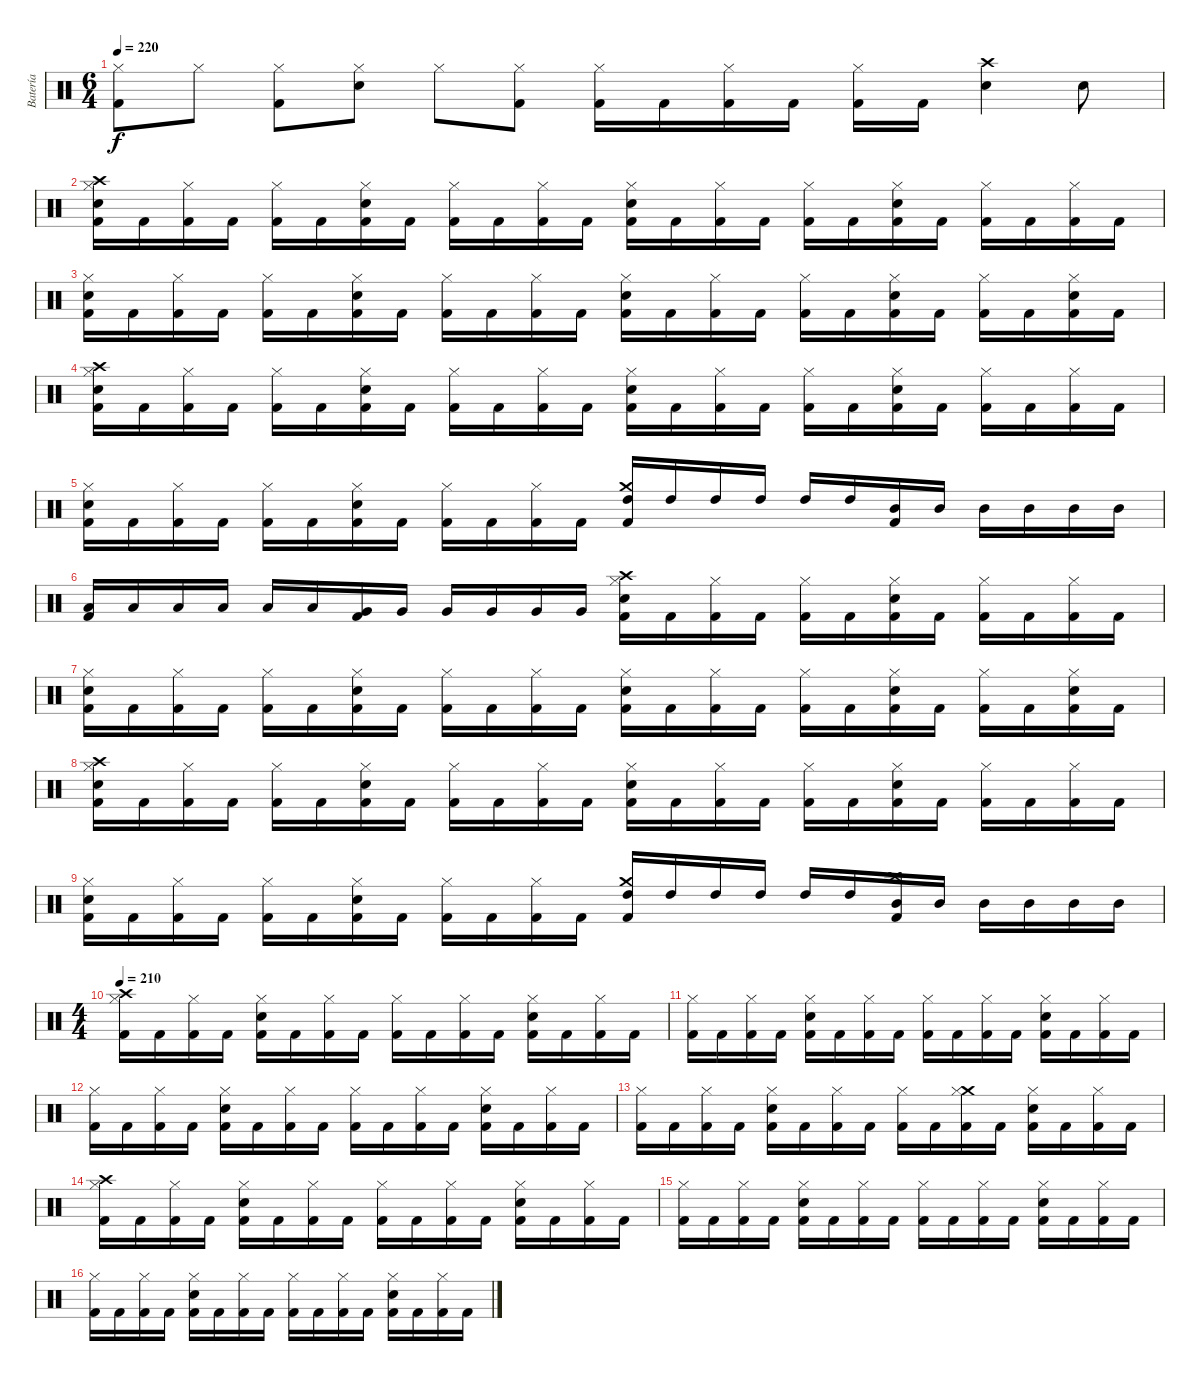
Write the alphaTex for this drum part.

\track ("Batería" "Batería") {instrument percussion}
\staff {score}
\articulation defaults
\ts (6 4)
\tempo 220
\clef neutral
\ks c
("Kick (hit) 2" "Hi-Hat (closed)").8{dy f} "Hi-Hat (closed)".8 ("Kick (hit) 2" "Hi-Hat (closed)").8 ("Electric Snare (hit)" "Hi-Hat (closed)").8 "Hi-Hat (closed)".8 ("Kick (hit) 2" "Hi-Hat (closed)").8 ("Hi-Hat (closed)" "Kick (hit) 2").16 "Kick (hit) 2".16 ("Hi-Hat (closed)" "Kick (hit) 2").16 "Kick (hit) 2".16 ("Hi-Hat (closed)" "Kick (hit) 2").16 "Kick (hit) 2".16 ("Crash high (hit)" "Electric Snare (hit)").4 "Electric Snare (hit)".8 |
("Crash high (hit)" "Electric Snare (hit)" "Hi-Hat (closed)" "Kick (hit) 2").16 "Kick (hit) 2".16 ("Hi-Hat (closed)" "Kick (hit) 2").16 "Kick (hit) 2".16 ("Hi-Hat (closed)" "Kick (hit) 2").16 "Kick (hit) 2".16 ("Electric Snare (hit)" "Hi-Hat (closed)" "Kick (hit) 2").16 "Kick (hit) 2".16 ("Hi-Hat (closed)" "Kick (hit) 2").16 "Kick (hit) 2".16 ("Hi-Hat (closed)" "Kick (hit) 2").16 "Kick (hit) 2".16 ("Electric Snare (hit)" "Hi-Hat (closed)" "Kick (hit) 2").16 "Kick (hit) 2".16 ("Hi-Hat (closed)" "Kick (hit) 2").16 "Kick (hit) 2".16 ("Hi-Hat (closed)" "Kick (hit) 2").16 "Kick (hit) 2".16 ("Electric Snare (hit)" "Hi-Hat (closed)" "Kick (hit) 2").16 "Kick (hit) 2".16 ("Hi-Hat (closed)" "Kick (hit) 2").16 "Kick (hit) 2".16 ("Hi-Hat (closed)" "Kick (hit) 2").16 "Kick (hit) 2".16 |
("Electric Snare (hit)" "Hi-Hat (closed)" "Kick (hit) 2").16 "Kick (hit) 2".16 ("Hi-Hat (closed)" "Kick (hit) 2").16 "Kick (hit) 2".16 ("Hi-Hat (closed)" "Kick (hit) 2").16 "Kick (hit) 2".16 ("Electric Snare (hit)" "Hi-Hat (closed)" "Kick (hit) 2").16 "Kick (hit) 2".16 ("Hi-Hat (closed)" "Kick (hit) 2").16 "Kick (hit) 2".16 ("Hi-Hat (closed)" "Kick (hit) 2").16 "Kick (hit) 2".16 ("Electric Snare (hit)" "Hi-Hat (closed)" "Kick (hit) 2").16 "Kick (hit) 2".16 ("Hi-Hat (closed)" "Kick (hit) 2").16 "Kick (hit) 2".16 ("Hi-Hat (closed)" "Kick (hit) 2").16 "Kick (hit) 2".16 ("Electric Snare (hit)" "Hi-Hat (closed)" "Kick (hit) 2").16 "Kick (hit) 2".16 ("Hi-Hat (closed)" "Kick (hit) 2").16 "Kick (hit) 2".16 ("Electric Snare (hit)" "Hi-Hat (closed)" "Kick (hit) 2").16 "Kick (hit) 2".16 |
("Crash high (hit)" "Electric Snare (hit)" "Hi-Hat (closed)" "Kick (hit) 2").16 "Kick (hit) 2".16 ("Hi-Hat (closed)" "Kick (hit) 2").16 "Kick (hit) 2".16 ("Hi-Hat (closed)" "Kick (hit) 2").16 "Kick (hit) 2".16 ("Electric Snare (hit)" "Hi-Hat (closed)" "Kick (hit) 2").16 "Kick (hit) 2".16 ("Hi-Hat (closed)" "Kick (hit) 2").16 "Kick (hit) 2".16 ("Hi-Hat (closed)" "Kick (hit) 2").16 "Kick (hit) 2".16 ("Electric Snare (hit)" "Hi-Hat (closed)" "Kick (hit) 2").16 "Kick (hit) 2".16 ("Hi-Hat (closed)" "Kick (hit) 2").16 "Kick (hit) 2".16 ("Hi-Hat (closed)" "Kick (hit) 2").16 "Kick (hit) 2".16 ("Electric Snare (hit)" "Hi-Hat (closed)" "Kick (hit) 2").16 "Kick (hit) 2".16 ("Hi-Hat (closed)" "Kick (hit) 2").16 "Kick (hit) 2".16 ("Hi-Hat (closed)" "Kick (hit) 2").16 "Kick (hit) 2".16 |
("Electric Snare (hit)" "Hi-Hat (closed)" "Kick (hit) 2").16 "Kick (hit) 2".16 ("Hi-Hat (closed)" "Kick (hit) 2").16 "Kick (hit) 2".16 ("Hi-Hat (closed)" "Kick (hit) 2").16 "Kick (hit) 2".16 ("Electric Snare (hit)" "Hi-Hat (closed)" "Kick (hit) 2").16 "Kick (hit) 2".16 ("Hi-Hat (closed)" "Kick (hit) 2").16 "Kick (hit) 2".16 ("Hi-Hat (closed)" "Kick (hit) 2").16 "Kick (hit) 2".16 ("Crash medium (hit)" "Kick (hit) 2" "High Tom (hit)").16 "High Tom (hit)".16 "High Tom (hit)".16 "High Tom (hit)".16 "High Tom (hit)".16 "High Tom (hit)".16 ("Kick (hit) 2" "Mid Tom (hit)").16 "Mid Tom (hit)".16 "Mid Tom (hit)".16 "Mid Tom (hit)".16 "Mid Tom (hit)".16 "Mid Tom (hit)".16 |
("Kick (hit) 2" "Low Tom (hit)").16 "Low Tom (hit)".16 "Low Tom (hit)".16 "Low Tom (hit)".16 "Low Tom (hit)".16 "Low Tom (hit)".16 ("Kick (hit) 2" "Very Low Tom (hit)").16 "Very Low Tom (hit)".16 "Very Low Tom (hit)".16 "Very Low Tom (hit)".16 "Very Low Tom (hit)".16 "Very Low Tom (hit)".16 ("Crash high (hit)" "Electric Snare (hit)" "Hi-Hat (closed)" "Kick (hit) 2").16 "Kick (hit) 2".16 ("Hi-Hat (closed)" "Kick (hit) 2").16 "Kick (hit) 2".16 ("Hi-Hat (closed)" "Kick (hit) 2").16 "Kick (hit) 2".16 ("Electric Snare (hit)" "Hi-Hat (closed)" "Kick (hit) 2").16 "Kick (hit) 2".16 ("Hi-Hat (closed)" "Kick (hit) 2").16 "Kick (hit) 2".16 ("Hi-Hat (closed)" "Kick (hit) 2").16 "Kick (hit) 2".16 |
("Electric Snare (hit)" "Hi-Hat (closed)" "Kick (hit) 2").16 "Kick (hit) 2".16 ("Hi-Hat (closed)" "Kick (hit) 2").16 "Kick (hit) 2".16 ("Hi-Hat (closed)" "Kick (hit) 2").16 "Kick (hit) 2".16 ("Electric Snare (hit)" "Hi-Hat (closed)" "Kick (hit) 2").16 "Kick (hit) 2".16 ("Hi-Hat (closed)" "Kick (hit) 2").16 "Kick (hit) 2".16 ("Hi-Hat (closed)" "Kick (hit) 2").16 "Kick (hit) 2".16 ("Electric Snare (hit)" "Hi-Hat (closed)" "Kick (hit) 2").16 "Kick (hit) 2".16 ("Hi-Hat (closed)" "Kick (hit) 2").16 "Kick (hit) 2".16 ("Hi-Hat (closed)" "Kick (hit) 2").16 "Kick (hit) 2".16 ("Electric Snare (hit)" "Hi-Hat (closed)" "Kick (hit) 2").16 "Kick (hit) 2".16 ("Hi-Hat (closed)" "Kick (hit) 2").16 "Kick (hit) 2".16 ("Electric Snare (hit)" "Hi-Hat (closed)" "Kick (hit) 2").16 "Kick (hit) 2".16 |
("Crash high (hit)" "Electric Snare (hit)" "Hi-Hat (closed)" "Kick (hit) 2").16 "Kick (hit) 2".16 ("Hi-Hat (closed)" "Kick (hit) 2").16 "Kick (hit) 2".16 ("Hi-Hat (closed)" "Kick (hit) 2").16 "Kick (hit) 2".16 ("Electric Snare (hit)" "Hi-Hat (closed)" "Kick (hit) 2").16 "Kick (hit) 2".16 ("Hi-Hat (closed)" "Kick (hit) 2").16 "Kick (hit) 2".16 ("Hi-Hat (closed)" "Kick (hit) 2").16 "Kick (hit) 2".16 ("Electric Snare (hit)" "Hi-Hat (closed)" "Kick (hit) 2").16 "Kick (hit) 2".16 ("Hi-Hat (closed)" "Kick (hit) 2").16 "Kick (hit) 2".16 ("Hi-Hat (closed)" "Kick (hit) 2").16 "Kick (hit) 2".16 ("Electric Snare (hit)" "Hi-Hat (closed)" "Kick (hit) 2").16 "Kick (hit) 2".16 ("Hi-Hat (closed)" "Kick (hit) 2").16 "Kick (hit) 2".16 ("Hi-Hat (closed)" "Kick (hit) 2").16 "Kick (hit) 2".16 |
("Electric Snare (hit)" "Hi-Hat (closed)" "Kick (hit) 2").16 "Kick (hit) 2".16 ("Hi-Hat (closed)" "Kick (hit) 2").16 "Kick (hit) 2".16 ("Hi-Hat (closed)" "Kick (hit) 2").16 "Kick (hit) 2".16 ("Electric Snare (hit)" "Hi-Hat (closed)" "Kick (hit) 2").16 "Kick (hit) 2".16 ("Hi-Hat (closed)" "Kick (hit) 2").16 "Kick (hit) 2".16 ("Hi-Hat (closed)" "Kick (hit) 2").16 "Kick (hit) 2".16 ("Crash medium (hit)" "Kick (hit) 2" "High Tom (hit)").16 "High Tom (hit)".16 "High Tom (hit)".16 "High Tom (hit)".16 "High Tom (hit)".16 "High Tom (hit)".16 ("Crash high (hit)" "Kick (hit) 2" "Mid Tom (hit)").16 "Mid Tom (hit)".16 "Mid Tom (hit)".16 "Mid Tom (hit)".16 "Mid Tom (hit)".16 "Mid Tom (hit)".16 |
\ts (4 4)
\tempo 210
("Crash high (hit)" "Hi-Hat (closed)" "Kick (hit) 2").16 "Kick (hit) 2".16 ("Hi-Hat (closed)" "Kick (hit) 2").16 "Kick (hit) 2".16 ("Electric Snare (hit)" "Hi-Hat (closed)" "Kick (hit) 2").16 "Kick (hit) 2".16 ("Hi-Hat (closed)" "Kick (hit) 2").16 "Kick (hit) 2".16 ("Hi-Hat (closed)" "Kick (hit) 2").16 "Kick (hit) 2".16 ("Hi-Hat (closed)" "Kick (hit) 2").16 "Kick (hit) 2".16 ("Electric Snare (hit)" "Hi-Hat (closed)" "Kick (hit) 2").16 "Kick (hit) 2".16 ("Hi-Hat (closed)" "Kick (hit) 2").16 "Kick (hit) 2".16 |
("Hi-Hat (closed)" "Kick (hit) 2").16 "Kick (hit) 2".16 ("Hi-Hat (closed)" "Kick (hit) 2").16 "Kick (hit) 2".16 ("Electric Snare (hit)" "Hi-Hat (closed)" "Kick (hit) 2").16 "Kick (hit) 2".16 ("Hi-Hat (closed)" "Kick (hit) 2").16 "Kick (hit) 2".16 ("Hi-Hat (closed)" "Kick (hit) 2").16 "Kick (hit) 2".16 ("Hi-Hat (closed)" "Kick (hit) 2").16 "Kick (hit) 2".16 ("Electric Snare (hit)" "Hi-Hat (closed)" "Kick (hit) 2").16 "Kick (hit) 2".16 ("Hi-Hat (closed)" "Kick (hit) 2").16 "Kick (hit) 2".16 |
("Hi-Hat (closed)" "Kick (hit) 2").16 "Kick (hit) 2".16 ("Hi-Hat (closed)" "Kick (hit) 2").16 "Kick (hit) 2".16 ("Electric Snare (hit)" "Hi-Hat (closed)" "Kick (hit) 2").16 "Kick (hit) 2".16 ("Hi-Hat (closed)" "Kick (hit) 2").16 "Kick (hit) 2".16 ("Hi-Hat (closed)" "Kick (hit) 2").16 "Kick (hit) 2".16 ("Hi-Hat (closed)" "Kick (hit) 2").16 "Kick (hit) 2".16 ("Electric Snare (hit)" "Hi-Hat (closed)" "Kick (hit) 2").16 "Kick (hit) 2".16 ("Hi-Hat (closed)" "Kick (hit) 2").16 "Kick (hit) 2".16 |
("Hi-Hat (closed)" "Kick (hit) 2").16 "Kick (hit) 2".16 ("Hi-Hat (closed)" "Kick (hit) 2").16 "Kick (hit) 2".16 ("Electric Snare (hit)" "Hi-Hat (closed)" "Kick (hit) 2").16 "Kick (hit) 2".16 ("Hi-Hat (closed)" "Kick (hit) 2").16 "Kick (hit) 2".16 ("Hi-Hat (closed)" "Kick (hit) 2").16 "Kick (hit) 2".16 ("Crash medium (hit)" "Hi-Hat (closed)" "Kick (hit) 2").16 "Kick (hit) 2".16 ("Electric Snare (hit)" "Hi-Hat (closed)" "Kick (hit) 2").16 "Kick (hit) 2".16 ("Hi-Hat (closed)" "Kick (hit) 2").16 "Kick (hit) 2".16 |
("Crash high (hit)" "Hi-Hat (closed)" "Kick (hit) 2").16 "Kick (hit) 2".16 ("Hi-Hat (closed)" "Kick (hit) 2").16 "Kick (hit) 2".16 ("Electric Snare (hit)" "Hi-Hat (closed)" "Kick (hit) 2").16 "Kick (hit) 2".16 ("Hi-Hat (closed)" "Kick (hit) 2").16 "Kick (hit) 2".16 ("Hi-Hat (closed)" "Kick (hit) 2").16 "Kick (hit) 2".16 ("Hi-Hat (closed)" "Kick (hit) 2").16 "Kick (hit) 2".16 ("Electric Snare (hit)" "Hi-Hat (closed)" "Kick (hit) 2").16 "Kick (hit) 2".16 ("Hi-Hat (closed)" "Kick (hit) 2").16 "Kick (hit) 2".16 |
("Hi-Hat (closed)" "Kick (hit) 2").16 "Kick (hit) 2".16 ("Hi-Hat (closed)" "Kick (hit) 2").16 "Kick (hit) 2".16 ("Electric Snare (hit)" "Hi-Hat (closed)" "Kick (hit) 2").16 "Kick (hit) 2".16 ("Hi-Hat (closed)" "Kick (hit) 2").16 "Kick (hit) 2".16 ("Hi-Hat (closed)" "Kick (hit) 2").16 "Kick (hit) 2".16 ("Hi-Hat (closed)" "Kick (hit) 2").16 "Kick (hit) 2".16 ("Electric Snare (hit)" "Hi-Hat (closed)" "Kick (hit) 2").16 "Kick (hit) 2".16 ("Hi-Hat (closed)" "Kick (hit) 2").16 "Kick (hit) 2".16 |
("Hi-Hat (closed)" "Kick (hit) 2").16 "Kick (hit) 2".16 ("Hi-Hat (closed)" "Kick (hit) 2").16 "Kick (hit) 2".16 ("Electric Snare (hit)" "Hi-Hat (closed)" "Kick (hit) 2").16 "Kick (hit) 2".16 ("Hi-Hat (closed)" "Kick (hit) 2").16 "Kick (hit) 2".16 ("Hi-Hat (closed)" "Kick (hit) 2").16 "Kick (hit) 2".16 ("Hi-Hat (closed)" "Kick (hit) 2").16 "Kick (hit) 2".16 ("Electric Snare (hit)" "Hi-Hat (closed)" "Kick (hit) 2").16 "Kick (hit) 2".16 ("Hi-Hat (closed)" "Kick (hit) 2").16 "Kick (hit) 2".16
